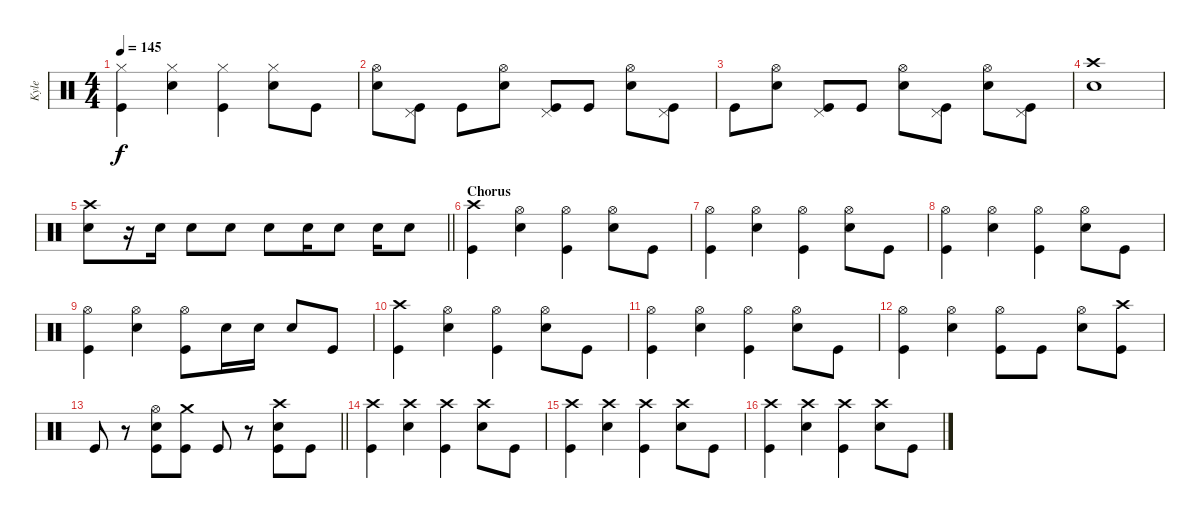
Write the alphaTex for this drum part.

\track ("Kyle" "Kyle") {instrument percussion}
\staff {score}
\articulation defaults
\ts (4 4)
\tempo 145
\clef neutral
\ks c
("Hi-Hat (closed)" "Kick (hit)").4{dy f} ("Hi-Hat (closed)" "Electric Snare (hit)").4 ("Hi-Hat (closed)" "Kick (hit)").4 ("Hi-Hat (closed)" "Electric Snare (hit)").8 "Kick (hit)".8 |
("Hi-Hat (open)" "Electric Snare (hit)").8 ("Pedal Hi-Hat (hit)" "Kick (hit)").8 "Kick (hit)".8 ("Hi-Hat (open)" "Electric Snare (hit)").8 ("Pedal Hi-Hat (hit)" "Kick (hit)").8 "Kick (hit)".8 ("Hi-Hat (open)" "Electric Snare (hit)").8 ("Pedal Hi-Hat (hit)" "Kick (hit)").8 |
"Kick (hit)".8 ("Hi-Hat (open)" "Electric Snare (hit)").8 ("Pedal Hi-Hat (hit)" "Kick (hit)").8 "Kick (hit)".8 ("Hi-Hat (open)" "Electric Snare (hit)").8 ("Pedal Hi-Hat (hit)" "Kick (hit)").8 ("Hi-Hat (open)" "Electric Snare (hit)").8 ("Pedal Hi-Hat (hit)" "Kick (hit)").8 |
("Crash high (hit)" "Electric Snare (hit)").1 |
\barLineRight lightlight
("Crash high (hit)" "Electric Snare (hit)").8 r.16 "Electric Snare (hit)".16 "Electric Snare (hit)".8 "Electric Snare (hit)".8 "Electric Snare (hit)".8 "Electric Snare (hit)".16 "Electric Snare (hit)".8 "Electric Snare (hit)".16 "Electric Snare (hit)".8 |
\section ("" "Chorus")
("Crash high (hit)" "Kick (hit)").4{volume 16} ("Hi-Hat (open)" "Electric Snare (hit)").4 ("Hi-Hat (open)" "Kick (hit)").4 ("Hi-Hat (open)" "Electric Snare (hit)").8 "Kick (hit)".8 |
("Hi-Hat (open)" "Kick (hit)").4 ("Hi-Hat (open)" "Electric Snare (hit)").4 ("Hi-Hat (open)" "Kick (hit)").4 ("Hi-Hat (open)" "Electric Snare (hit)").8 "Kick (hit)".8 |
("Hi-Hat (open)" "Kick (hit)").4 ("Hi-Hat (open)" "Electric Snare (hit)").4 ("Hi-Hat (open)" "Kick (hit)").4 ("Hi-Hat (open)" "Electric Snare (hit)").8 "Kick (hit)".8 |
("Hi-Hat (open)" "Kick (hit)").4 ("Hi-Hat (open)" "Electric Snare (hit)").4 ("Hi-Hat (open)" "Kick (hit)").8 "Electric Snare (hit)".16 "Electric Snare (hit)".16 "Electric Snare (hit)".8 "Kick (hit)".8 |
("Crash high (hit)" "Kick (hit)").4 ("Hi-Hat (open)" "Electric Snare (hit)").4 ("Hi-Hat (open)" "Kick (hit)").4 ("Hi-Hat (open)" "Electric Snare (hit)").8 "Kick (hit)".8 |
("Hi-Hat (open)" "Kick (hit)").4 ("Hi-Hat (open)" "Electric Snare (hit)").4 ("Hi-Hat (open)" "Kick (hit)").4 ("Hi-Hat (open)" "Electric Snare (hit)").8 "Kick (hit)".8 |
("Hi-Hat (open)" "Kick (hit)").4 ("Hi-Hat (open)" "Electric Snare (hit)").4 ("Hi-Hat (open)" "Kick (hit)").8 "Kick (hit)".8 ("Hi-Hat (open)" "Electric Snare (hit)").8 ("Crash high (hit)" "Kick (hit)").8 |
\barLineRight lightlight "Kick (hit)".8
r.8 ("Hi-Hat (open)" "Kick (hit)" "Electric Snare (hit)").8 ("Crash medium (hit)" "Kick (hit)").8 "Kick (hit)".8 r.8 ("Crash high (hit)" "Kick (hit)" "Electric Snare (hit)").8 "Kick (hit)".8 |
("Crash high (hit)" "Kick (hit)").4{volume 16} ("Crash high (hit)" "Electric Snare (hit)").4 ("Crash high (hit)" "Kick (hit)").4 ("Crash high (hit)" "Electric Snare (hit)").8 "Kick (hit)".8 |
("Crash high (hit)" "Kick (hit)").4 ("Crash high (hit)" "Electric Snare (hit)").4 ("Crash high (hit)" "Kick (hit)").4 ("Crash high (hit)" "Electric Snare (hit)").8 "Kick (hit)".8 |
("Crash high (hit)" "Kick (hit)").4 ("Crash high (hit)" "Electric Snare (hit)").4 ("Crash high (hit)" "Kick (hit)").4 ("Crash high (hit)" "Electric Snare (hit)").8 "Kick (hit)".8
